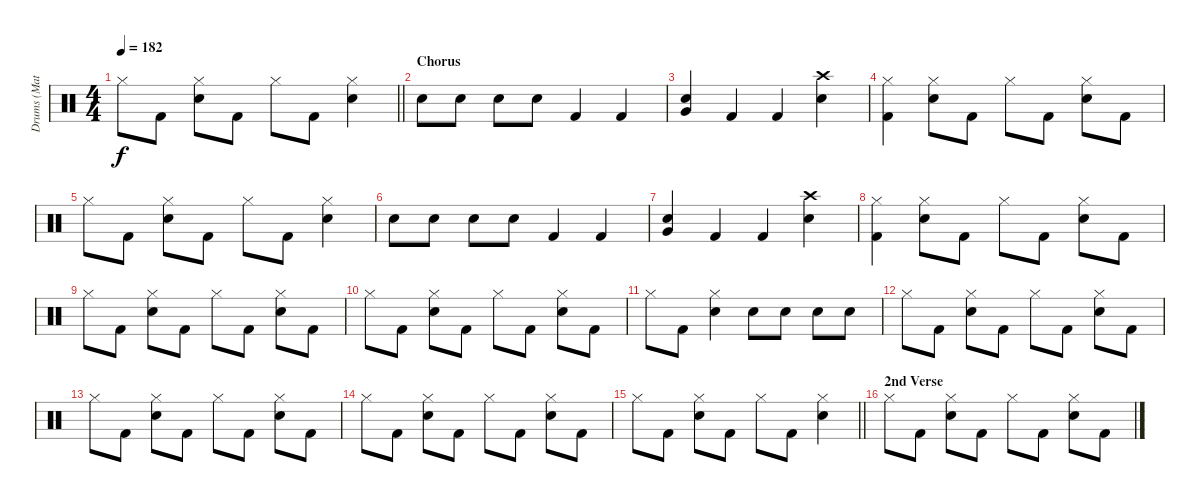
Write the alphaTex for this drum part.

\track ("Drums (Matt)" "Drums (Mat") {instrument percussion}
\staff {score}
\articulation defaults
\ts (4 4)
\tempo 182
\clef neutral
\barLineRight lightlight
\ks c "Hi-Hat (closed)".8{dy f} "Kick (hit) 2".8
("Hi-Hat (closed)" "Snare (hit) 2").8 "Kick (hit) 2".8 "Hi-Hat (closed)".8 "Kick (hit) 2".8 ("Hi-Hat (closed)" "Snare (hit) 2").4 |
\section ("" "Chorus")
"Snare (hit) 2".8 "Snare (hit) 2".8 "Snare (hit) 2".8 "Snare (hit) 2".8 "Kick (hit) 2".4 "Kick (hit) 2".4 |
("Very Low Tom (hit)" "Snare (hit) 2").4 "Kick (hit) 2".4 "Kick (hit) 2".4 ("Crash high (hit)" "Snare (hit) 2").4 |
("Hi-Hat (closed)" "Kick (hit) 2").4 ("Hi-Hat (closed)" "Snare (hit) 2").8 "Kick (hit) 2".8 "Hi-Hat (closed)".8 "Kick (hit) 2".8 ("Hi-Hat (closed)" "Snare (hit) 2").8 "Kick (hit) 2".8 |
"Hi-Hat (closed)".8 "Kick (hit) 2".8 ("Hi-Hat (closed)" "Snare (hit) 2").8 "Kick (hit) 2".8 "Hi-Hat (closed)".8 "Kick (hit) 2".8 ("Hi-Hat (closed)" "Snare (hit) 2").4 |
"Snare (hit) 2".8 "Snare (hit) 2".8 "Snare (hit) 2".8 "Snare (hit) 2".8 "Kick (hit) 2".4 "Kick (hit) 2".4 |
("Very Low Tom (hit)" "Snare (hit) 2").4 "Kick (hit) 2".4 "Kick (hit) 2".4 ("Crash high (hit)" "Snare (hit) 2").4 |
("Hi-Hat (closed)" "Kick (hit) 2").4 ("Hi-Hat (closed)" "Snare (hit) 2").8 "Kick (hit) 2".8 "Hi-Hat (closed)".8 "Kick (hit) 2".8 ("Hi-Hat (closed)" "Snare (hit) 2").8 "Kick (hit) 2".8 |
"Hi-Hat (closed)".8 "Kick (hit) 2".8 ("Hi-Hat (closed)" "Snare (hit) 2").8 "Kick (hit) 2".8 "Hi-Hat (closed)".8 "Kick (hit) 2".8 ("Hi-Hat (closed)" "Snare (hit) 2").8 "Kick (hit) 2".8 |
"Hi-Hat (closed)".8 "Kick (hit) 2".8 ("Hi-Hat (closed)" "Snare (hit) 2").8 "Kick (hit) 2".8 "Hi-Hat (closed)".8 "Kick (hit) 2".8 ("Hi-Hat (closed)" "Snare (hit) 2").8 "Kick (hit) 2".8 |
"Hi-Hat (closed)".8 "Kick (hit) 2".8 ("Hi-Hat (closed)" "Snare (hit) 2").4 "Snare (hit) 2".8 "Snare (hit) 2".8 "Snare (hit) 2".8 "Snare (hit) 2".8 |
"Hi-Hat (closed)".8 "Kick (hit) 2".8 ("Hi-Hat (closed)" "Snare (hit) 2").8 "Kick (hit) 2".8 "Hi-Hat (closed)".8 "Kick (hit) 2".8 ("Hi-Hat (closed)" "Snare (hit) 2").8 "Kick (hit) 2".8 |
"Hi-Hat (closed)".8 "Kick (hit) 2".8 ("Hi-Hat (closed)" "Snare (hit) 2").8 "Kick (hit) 2".8 "Hi-Hat (closed)".8 "Kick (hit) 2".8 ("Hi-Hat (closed)" "Snare (hit) 2").8 "Kick (hit) 2".8 |
"Hi-Hat (closed)".8 "Kick (hit) 2".8 ("Hi-Hat (closed)" "Snare (hit) 2").8 "Kick (hit) 2".8 "Hi-Hat (closed)".8 "Kick (hit) 2".8 ("Hi-Hat (closed)" "Snare (hit) 2").8 "Kick (hit) 2".8 |
\barLineRight lightlight "Hi-Hat (closed)".8 "Kick (hit) 2".8
("Hi-Hat (closed)" "Snare (hit) 2").8 "Kick (hit) 2".8 "Hi-Hat (closed)".8 "Kick (hit) 2".8 ("Hi-Hat (closed)" "Snare (hit) 2").4 |
\section ("" "2nd Verse")
"Hi-Hat (closed)".8 "Kick (hit) 2".8 ("Hi-Hat (closed)" "Snare (hit) 2").8 "Kick (hit) 2".8 "Hi-Hat (closed)".8 "Kick (hit) 2".8 ("Hi-Hat (closed)" "Snare (hit) 2").8 "Kick (hit) 2".8
